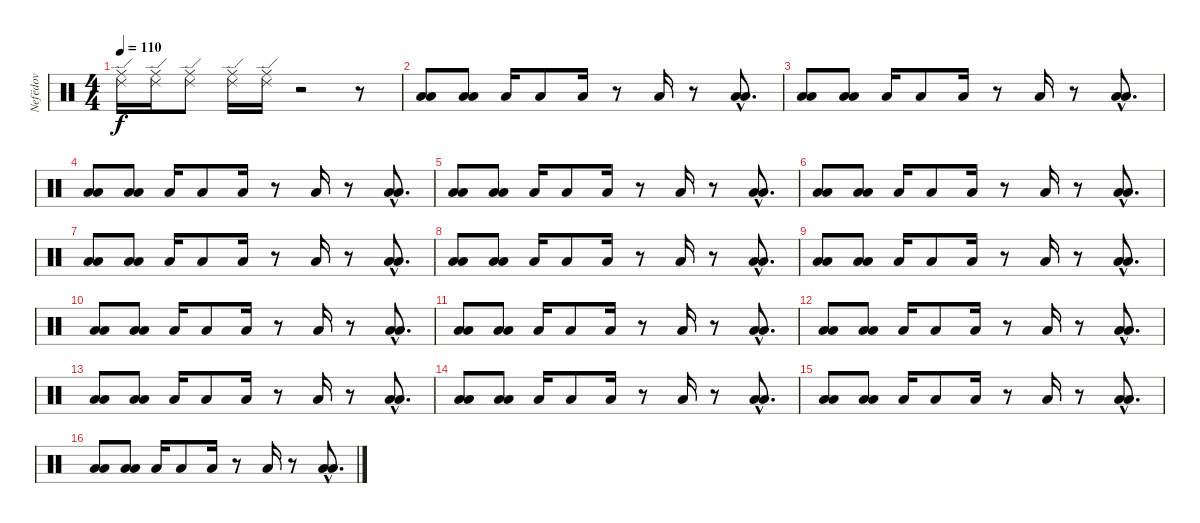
\track ("Nefёdov" "Nefёdov") {instrument percussion}
\staff {score}
\articulation defaults
\ts (4 4)
\tempo 110
\clef neutral
\ks c
("Ride (edge) 2" "Ride (middle)").16{dy f} ("Ride (edge) 2" "Ride (middle)").16 ("Ride (edge) 2" "Ride (middle)").8 ("Ride (edge) 2" "Ride (middle)").16 ("Ride (edge) 2" "Ride (middle)").16 r.2 r.8 |
("Low Tom (hit)" "Low Floor Tom (hit)").8 ("Low Tom (hit)" "Low Floor Tom (hit)").8 "Low Floor Tom (hit)".16 "Low Floor Tom (hit)".8 "Low Floor Tom (hit)".16 r.8 "Low Floor Tom (hit)".16 r.8 ("Low Tom (hit)"{hac} "Low Floor Tom (hit)"{hac}).8{d} |
("Low Tom (hit)" "Low Floor Tom (hit)").8 ("Low Tom (hit)" "Low Floor Tom (hit)").8 "Low Floor Tom (hit)".16 "Low Floor Tom (hit)".8 "Low Floor Tom (hit)".16 r.8 "Low Floor Tom (hit)".16 r.8 ("Low Tom (hit)"{hac} "Low Floor Tom (hit)"{hac}).8{d} |
("Low Tom (hit)" "Low Floor Tom (hit)").8 ("Low Tom (hit)" "Low Floor Tom (hit)").8 "Low Floor Tom (hit)".16 "Low Floor Tom (hit)".8 "Low Floor Tom (hit)".16 r.8 "Low Floor Tom (hit)".16 r.8 ("Low Tom (hit)"{hac} "Low Floor Tom (hit)"{hac}).8{d} |
("Low Tom (hit)" "Low Floor Tom (hit)").8 ("Low Tom (hit)" "Low Floor Tom (hit)").8 "Low Floor Tom (hit)".16 "Low Floor Tom (hit)".8 "Low Floor Tom (hit)".16 r.8 "Low Floor Tom (hit)".16 r.8 ("Low Tom (hit)"{hac} "Low Floor Tom (hit)"{hac}).8{d} |
("Low Tom (hit)" "Low Floor Tom (hit)").8 ("Low Tom (hit)" "Low Floor Tom (hit)").8 "Low Floor Tom (hit)".16 "Low Floor Tom (hit)".8 "Low Floor Tom (hit)".16 r.8 "Low Floor Tom (hit)".16 r.8 ("Low Tom (hit)"{hac} "Low Floor Tom (hit)"{hac}).8{d} |
("Low Tom (hit)" "Low Floor Tom (hit)").8 ("Low Tom (hit)" "Low Floor Tom (hit)").8 "Low Floor Tom (hit)".16 "Low Floor Tom (hit)".8 "Low Floor Tom (hit)".16 r.8 "Low Floor Tom (hit)".16 r.8 ("Low Tom (hit)"{hac} "Low Floor Tom (hit)"{hac}).8{d} |
("Low Tom (hit)" "Low Floor Tom (hit)").8 ("Low Tom (hit)" "Low Floor Tom (hit)").8 "Low Floor Tom (hit)".16 "Low Floor Tom (hit)".8 "Low Floor Tom (hit)".16 r.8 "Low Floor Tom (hit)".16 r.8 ("Low Tom (hit)"{hac} "Low Floor Tom (hit)"{hac}).8{d} |
("Low Tom (hit)" "Low Floor Tom (hit)").8 ("Low Tom (hit)" "Low Floor Tom (hit)").8 "Low Floor Tom (hit)".16 "Low Floor Tom (hit)".8 "Low Floor Tom (hit)".16 r.8 "Low Floor Tom (hit)".16 r.8 ("Low Tom (hit)"{hac} "Low Floor Tom (hit)"{hac}).8{d} |
("Low Tom (hit)" "Low Floor Tom (hit)").8 ("Low Tom (hit)" "Low Floor Tom (hit)").8 "Low Floor Tom (hit)".16 "Low Floor Tom (hit)".8 "Low Floor Tom (hit)".16 r.8 "Low Floor Tom (hit)".16 r.8 ("Low Tom (hit)"{hac} "Low Floor Tom (hit)"{hac}).8{d} |
("Low Tom (hit)" "Low Floor Tom (hit)").8 ("Low Tom (hit)" "Low Floor Tom (hit)").8 "Low Floor Tom (hit)".16 "Low Floor Tom (hit)".8 "Low Floor Tom (hit)".16 r.8 "Low Floor Tom (hit)".16 r.8 ("Low Tom (hit)"{hac} "Low Floor Tom (hit)"{hac}).8{d} |
("Low Tom (hit)" "Low Floor Tom (hit)").8 ("Low Tom (hit)" "Low Floor Tom (hit)").8 "Low Floor Tom (hit)".16 "Low Floor Tom (hit)".8 "Low Floor Tom (hit)".16 r.8 "Low Floor Tom (hit)".16 r.8 ("Low Tom (hit)"{hac} "Low Floor Tom (hit)"{hac}).8{d} |
("Low Tom (hit)" "Low Floor Tom (hit)").8 ("Low Tom (hit)" "Low Floor Tom (hit)").8 "Low Floor Tom (hit)".16 "Low Floor Tom (hit)".8 "Low Floor Tom (hit)".16 r.8 "Low Floor Tom (hit)".16 r.8 ("Low Tom (hit)"{hac} "Low Floor Tom (hit)"{hac}).8{d} |
("Low Tom (hit)" "Low Floor Tom (hit)").8 ("Low Tom (hit)" "Low Floor Tom (hit)").8 "Low Floor Tom (hit)".16 "Low Floor Tom (hit)".8 "Low Floor Tom (hit)".16 r.8 "Low Floor Tom (hit)".16 r.8 ("Low Tom (hit)"{hac} "Low Floor Tom (hit)"{hac}).8{d} |
("Low Tom (hit)" "Low Floor Tom (hit)").8 ("Low Tom (hit)" "Low Floor Tom (hit)").8 "Low Floor Tom (hit)".16 "Low Floor Tom (hit)".8 "Low Floor Tom (hit)".16 r.8 "Low Floor Tom (hit)".16 r.8 ("Low Tom (hit)"{hac} "Low Floor Tom (hit)"{hac}).8{d} |
("Low Tom (hit)" "Low Floor Tom (hit)").8 ("Low Tom (hit)" "Low Floor Tom (hit)").8 "Low Floor Tom (hit)".16 "Low Floor Tom (hit)".8 "Low Floor Tom (hit)".16 r.8 "Low Floor Tom (hit)".16 r.8 ("Low Tom (hit)"{hac} "Low Floor Tom (hit)"{hac}).8{d}
